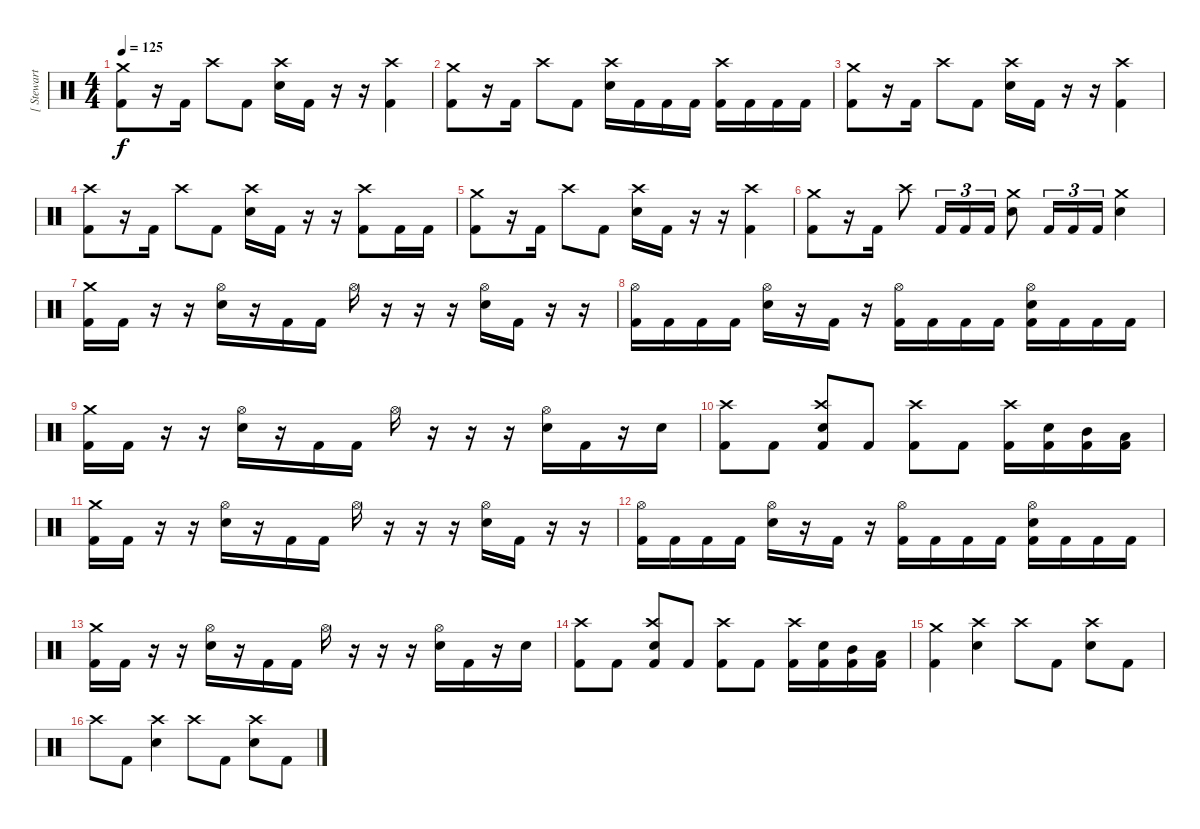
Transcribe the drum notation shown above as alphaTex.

\track ("[ Stewart ]" "[ Stewart ") {instrument percussion}
\staff {score}
\articulation defaults
\ts (4 4)
\tempo 125
\clef neutral
\ks c
("Kick (hit) 2" "Crash medium (hit)").8{dy f} r.16 "Kick (hit) 2".16 "Crash high (hit)".8 "Kick (hit) 2".8 ("Electric Snare (hit)" "Crash high (hit)").16 "Kick (hit) 2".16 r.16 r.16 ("Kick (hit) 2" "Crash high (hit)").4 |
("Kick (hit) 2" "Crash medium (hit)").8 r.16 "Kick (hit) 2".16 "Crash high (hit)".8 "Kick (hit) 2".8 ("Electric Snare (hit)" "Crash high (hit)").16 "Kick (hit) 2".16 "Kick (hit) 2".16 "Kick (hit) 2".16 ("Kick (hit) 2" "Crash high (hit)").16 "Kick (hit) 2".16 "Kick (hit) 2".16 "Kick (hit) 2".16 |
("Kick (hit) 2" "Crash medium (hit)").8 r.16 "Kick (hit) 2".16 "Crash high (hit)".8 "Kick (hit) 2".8 ("Electric Snare (hit)" "Crash high (hit)").16 "Kick (hit) 2".16 r.16 r.16 ("Kick (hit) 2" "Crash high (hit)").4 |
("Kick (hit) 2" "Crash high (hit)").8 r.16 "Kick (hit) 2".16 "Crash high (hit)".8 "Kick (hit) 2".8 ("Electric Snare (hit)" "Crash high (hit)").16 "Kick (hit) 2".16 r.16 r.16 ("Kick (hit) 2" "Crash high (hit)").8 "Kick (hit) 2".16 "Kick (hit) 2".16 |
("Kick (hit) 2" "Crash medium (hit)").8 r.16 "Kick (hit) 2".16 "Crash high (hit)".8 "Kick (hit) 2".8 ("Electric Snare (hit)" "Crash high (hit)").16 "Kick (hit) 2".16 r.16 r.16 ("Kick (hit) 2" "Crash high (hit)").4 |
("Kick (hit) 2" "Crash medium (hit)").8 r.16 "Kick (hit) 2".16 "Crash high (hit)".8 "Kick (hit) 2".16{tu (3 2)} "Kick (hit) 2".16{tu (3 2)} "Kick (hit) 2".16{tu (3 2)} ("Electric Snare (hit)" "Crash medium (hit)").8 "Kick (hit) 2".16{tu (3 2)} "Kick (hit) 2".16{tu (3 2)} "Kick (hit) 2".16{tu (3 2)} ("Electric Snare (hit)" "Crash medium (hit)").4 |
("Kick (hit) 2" "Crash medium (hit)").16 "Kick (hit) 2".16 r.16 r.16 ("Electric Snare (hit)" "Hi-Hat (open)").16 r.16 "Kick (hit) 2".16 "Kick (hit) 2".16 "Hi-Hat (open)".16 r.16 r.16 r.16 ("Electric Snare (hit)" "Hi-Hat (open)").16 "Kick (hit) 2".16 r.16 r.16 |
("Kick (hit) 2" "Hi-Hat (open)").16 "Kick (hit) 2".16 "Kick (hit) 2".16 "Kick (hit) 2".16 ("Electric Snare (hit)" "Hi-Hat (open)").16 r.16 "Kick (hit) 2".16 r.16 ("Kick (hit) 2" "Hi-Hat (open)").16 "Kick (hit) 2".16 "Kick (hit) 2".16 "Kick (hit) 2".16 ("Kick (hit) 2" "Electric Snare (hit)" "Hi-Hat (open)").16 "Kick (hit) 2".16 "Kick (hit) 2".16 "Kick (hit) 2".16 |
("Kick (hit) 2" "Crash medium (hit)").16 "Kick (hit) 2".16 r.16 r.16 ("Electric Snare (hit)" "Hi-Hat (open)").16 r.16 "Kick (hit) 2".16 "Kick (hit) 2".16 "Hi-Hat (open)".16 r.16 r.16 r.16 ("Electric Snare (hit)" "Hi-Hat (open)").16 "Kick (hit) 2".16 r.16 "Electric Snare (hit)".16 |
("Kick (hit) 2" "Crash high (hit)").8 "Kick (hit) 2".8 ("Kick (hit) 2" "Electric Snare (hit)" "Crash high (hit)").8 "Kick (hit) 2".8 ("Kick (hit) 2" "Crash high (hit)").8 "Kick (hit) 2".8 ("Kick (hit) 2" "Crash high (hit)").16 ("Electric Snare (hit)" "Kick (hit) 2").16 ("Mid Tom (hit)" "Kick (hit) 2").16 ("Low Tom (hit)" "Kick (hit) 2").16 |
("Kick (hit) 2" "Crash medium (hit)").16 "Kick (hit) 2".16 r.16 r.16 ("Electric Snare (hit)" "Hi-Hat (open)").16 r.16 "Kick (hit) 2".16 "Kick (hit) 2".16 "Hi-Hat (open)".16 r.16 r.16 r.16 ("Electric Snare (hit)" "Hi-Hat (open)").16 "Kick (hit) 2".16 r.16 r.16 |
("Kick (hit) 2" "Hi-Hat (open)").16 "Kick (hit) 2".16 "Kick (hit) 2".16 "Kick (hit) 2".16 ("Electric Snare (hit)" "Hi-Hat (open)").16 r.16 "Kick (hit) 2".16 r.16 ("Kick (hit) 2" "Hi-Hat (open)").16 "Kick (hit) 2".16 "Kick (hit) 2".16 "Kick (hit) 2".16 ("Kick (hit) 2" "Electric Snare (hit)" "Hi-Hat (open)").16 "Kick (hit) 2".16 "Kick (hit) 2".16 "Kick (hit) 2".16 |
("Kick (hit) 2" "Crash medium (hit)").16 "Kick (hit) 2".16 r.16 r.16 ("Electric Snare (hit)" "Hi-Hat (open)").16 r.16 "Kick (hit) 2".16 "Kick (hit) 2".16 "Hi-Hat (open)".16 r.16 r.16 r.16 ("Electric Snare (hit)" "Hi-Hat (open)").16 "Kick (hit) 2".16 r.16 "Electric Snare (hit)".16 |
("Kick (hit) 2" "Crash high (hit)").8 "Kick (hit) 2".8 ("Kick (hit) 2" "Electric Snare (hit)" "Crash high (hit)").8 "Kick (hit) 2".8 ("Kick (hit) 2" "Crash high (hit)").8 "Kick (hit) 2".8 ("Kick (hit) 2" "Crash high (hit)").16 ("Electric Snare (hit)" "Kick (hit) 2").16 ("Mid Tom (hit)" "Kick (hit) 2").16 ("Low Tom (hit)" "Kick (hit) 2").16 |
("Kick (hit) 2" "Crash medium (hit)").4 ("Electric Snare (hit)" "Crash high (hit)").4 "Crash high (hit)".8 "Kick (hit) 2".8 ("Electric Snare (hit)" "Crash high (hit)").8 "Kick (hit) 2".8 |
"Crash high (hit)".8 "Kick (hit) 2".8 ("Electric Snare (hit)" "Crash high (hit)").4 "Crash high (hit)".8 "Kick (hit) 2".8 ("Electric Snare (hit)" "Crash high (hit)").8 "Kick (hit) 2".8
